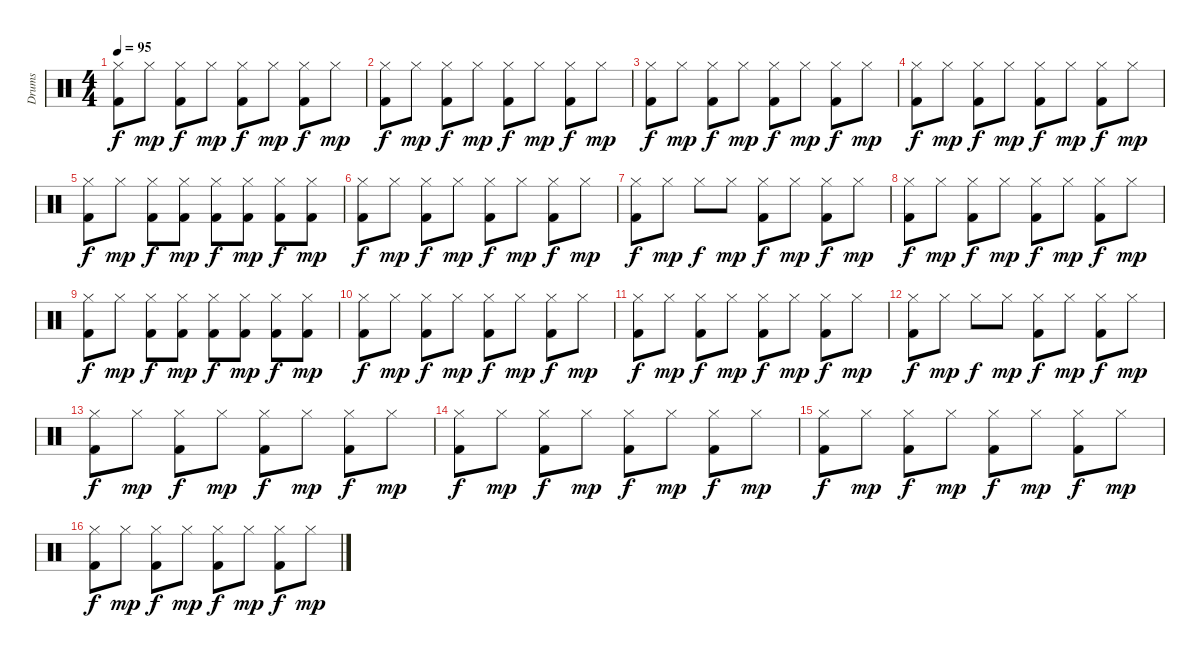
\track ("Drums" "Drums") {instrument percussion}
\staff {score}
\articulation defaults
\ts (4 4)
\tempo 95
\clef neutral
\ks c
("Kick (hit) 2" "Hi-Hat (closed)").8{dy f} "Hi-Hat (closed)".8{dy mp} ("Kick (hit) 2" "Hi-Hat (closed)").8{dy f} "Hi-Hat (closed)".8{dy mp} ("Kick (hit) 2" "Hi-Hat (closed)").8{dy f} "Hi-Hat (closed)".8{dy mp} ("Kick (hit) 2" "Hi-Hat (closed)").8{dy f} "Hi-Hat (closed)".8{dy mp} |
("Kick (hit) 2" "Hi-Hat (closed)").8{dy f} "Hi-Hat (closed)".8{dy mp} ("Kick (hit) 2" "Hi-Hat (closed)").8{dy f} "Hi-Hat (closed)".8{dy mp} ("Kick (hit) 2" "Hi-Hat (closed)").8{dy f} "Hi-Hat (closed)".8{dy mp} ("Kick (hit) 2" "Hi-Hat (closed)").8{dy f} "Hi-Hat (closed)".8{dy mp} |
("Kick (hit) 2" "Hi-Hat (closed)").8{dy f} "Hi-Hat (closed)".8{dy mp} ("Kick (hit) 2" "Hi-Hat (closed)").8{dy f} "Hi-Hat (closed)".8{dy mp} ("Kick (hit) 2" "Hi-Hat (closed)").8{dy f} "Hi-Hat (closed)".8{dy mp} ("Kick (hit) 2" "Hi-Hat (closed)").8{dy f} "Hi-Hat (closed)".8{dy mp} |
("Kick (hit) 2" "Hi-Hat (closed)").8{dy f} "Hi-Hat (closed)".8{dy mp} ("Kick (hit) 2" "Hi-Hat (closed)").8{dy f} "Hi-Hat (closed)".8{dy mp} ("Kick (hit) 2" "Hi-Hat (closed)").8{dy f} "Hi-Hat (closed)".8{dy mp} ("Kick (hit) 2" "Hi-Hat (closed)").8{dy f} "Hi-Hat (closed)".8{dy mp} |
("Kick (hit) 2" "Hi-Hat (closed)").8{dy f} "Hi-Hat (closed)".8{dy mp} ("Kick (hit) 2" "Hi-Hat (closed)").8{dy f} ("Kick (hit) 2" "Hi-Hat (closed)").8{dy mp} ("Kick (hit) 2" "Hi-Hat (closed)").8{dy f} ("Kick (hit) 2" "Hi-Hat (closed)").8{dy mp} ("Kick (hit) 2" "Hi-Hat (closed)").8{dy f} ("Kick (hit) 2" "Hi-Hat (closed)").8{dy mp} |
("Kick (hit) 2" "Hi-Hat (closed)").8{dy f} "Hi-Hat (closed)".8{dy mp} ("Kick (hit) 2" "Hi-Hat (closed)").8{dy f} "Hi-Hat (closed)".8{dy mp} ("Kick (hit) 2" "Hi-Hat (closed)").8{dy f} "Hi-Hat (closed)".8{dy mp} ("Kick (hit) 2" "Hi-Hat (closed)").8{dy f} "Hi-Hat (closed)".8{dy mp} |
("Kick (hit) 2" "Hi-Hat (closed)").8{dy f} "Hi-Hat (closed)".8{dy mp} "Hi-Hat (closed)".8{dy f} "Hi-Hat (closed)".8{dy mp} ("Kick (hit) 2" "Hi-Hat (closed)").8{dy f} "Hi-Hat (closed)".8{dy mp} ("Kick (hit) 2" "Hi-Hat (closed)").8{dy f} "Hi-Hat (closed)".8{dy mp} |
("Kick (hit) 2" "Hi-Hat (closed)").8{dy f} "Hi-Hat (closed)".8{dy mp} ("Kick (hit) 2" "Hi-Hat (closed)").8{dy f} "Hi-Hat (closed)".8{dy mp} ("Kick (hit) 2" "Hi-Hat (closed)").8{dy f} "Hi-Hat (closed)".8{dy mp} ("Kick (hit) 2" "Hi-Hat (closed)").8{dy f} "Hi-Hat (closed)".8{dy mp} |
("Kick (hit) 2" "Hi-Hat (closed)").8{dy f} "Hi-Hat (closed)".8{dy mp} ("Kick (hit) 2" "Hi-Hat (closed)").8{dy f} ("Kick (hit) 2" "Hi-Hat (closed)").8{dy mp} ("Kick (hit) 2" "Hi-Hat (closed)").8{dy f} ("Kick (hit) 2" "Hi-Hat (closed)").8{dy mp} ("Kick (hit) 2" "Hi-Hat (closed)").8{dy f} ("Kick (hit) 2" "Hi-Hat (closed)").8{dy mp} |
("Kick (hit) 2" "Hi-Hat (closed)").8{dy f} "Hi-Hat (closed)".8{dy mp} ("Kick (hit) 2" "Hi-Hat (closed)").8{dy f} "Hi-Hat (closed)".8{dy mp} ("Kick (hit) 2" "Hi-Hat (closed)").8{dy f} "Hi-Hat (closed)".8{dy mp} ("Kick (hit) 2" "Hi-Hat (closed)").8{dy f} "Hi-Hat (closed)".8{dy mp} |
("Kick (hit) 2" "Hi-Hat (closed)").8{dy f} "Hi-Hat (closed)".8{dy mp} ("Kick (hit) 2" "Hi-Hat (closed)").8{dy f} "Hi-Hat (closed)".8{dy mp} ("Kick (hit) 2" "Hi-Hat (closed)").8{dy f} "Hi-Hat (closed)".8{dy mp} ("Kick (hit) 2" "Hi-Hat (closed)").8{dy f} "Hi-Hat (closed)".8{dy mp} |
("Kick (hit) 2" "Hi-Hat (closed)").8{dy f} "Hi-Hat (closed)".8{dy mp} "Hi-Hat (closed)".8{dy f} "Hi-Hat (closed)".8{dy mp} ("Kick (hit) 2" "Hi-Hat (closed)").8{dy f} "Hi-Hat (closed)".8{dy mp} ("Kick (hit) 2" "Hi-Hat (closed)").8{dy f} "Hi-Hat (closed)".8{dy mp} |
("Kick (hit) 2" "Hi-Hat (closed)").8{dy f} "Hi-Hat (closed)".8{dy mp} ("Kick (hit) 2" "Hi-Hat (closed)").8{dy f} "Hi-Hat (closed)".8{dy mp} ("Kick (hit) 2" "Hi-Hat (closed)").8{dy f} "Hi-Hat (closed)".8{dy mp} ("Kick (hit) 2" "Hi-Hat (closed)").8{dy f} "Hi-Hat (closed)".8{dy mp} |
("Kick (hit) 2" "Hi-Hat (closed)").8{dy f} "Hi-Hat (closed)".8{dy mp} ("Kick (hit) 2" "Hi-Hat (closed)").8{dy f} "Hi-Hat (closed)".8{dy mp} ("Kick (hit) 2" "Hi-Hat (closed)").8{dy f} "Hi-Hat (closed)".8{dy mp} ("Kick (hit) 2" "Hi-Hat (closed)").8{dy f} "Hi-Hat (closed)".8{dy mp} |
("Kick (hit) 2" "Hi-Hat (closed)").8{dy f} "Hi-Hat (closed)".8{dy mp} ("Kick (hit) 2" "Hi-Hat (closed)").8{dy f} "Hi-Hat (closed)".8{dy mp} ("Kick (hit) 2" "Hi-Hat (closed)").8{dy f} "Hi-Hat (closed)".8{dy mp} ("Kick (hit) 2" "Hi-Hat (closed)").8{dy f} "Hi-Hat (closed)".8{dy mp} |
("Kick (hit) 2" "Hi-Hat (closed)").8{dy f} "Hi-Hat (closed)".8{dy mp} ("Kick (hit) 2" "Hi-Hat (closed)").8{dy f} "Hi-Hat (closed)".8{dy mp} ("Kick (hit) 2" "Hi-Hat (closed)").8{dy f} "Hi-Hat (closed)".8{dy mp} ("Kick (hit) 2" "Hi-Hat (closed)").8{dy f} "Hi-Hat (closed)".8{dy mp}
